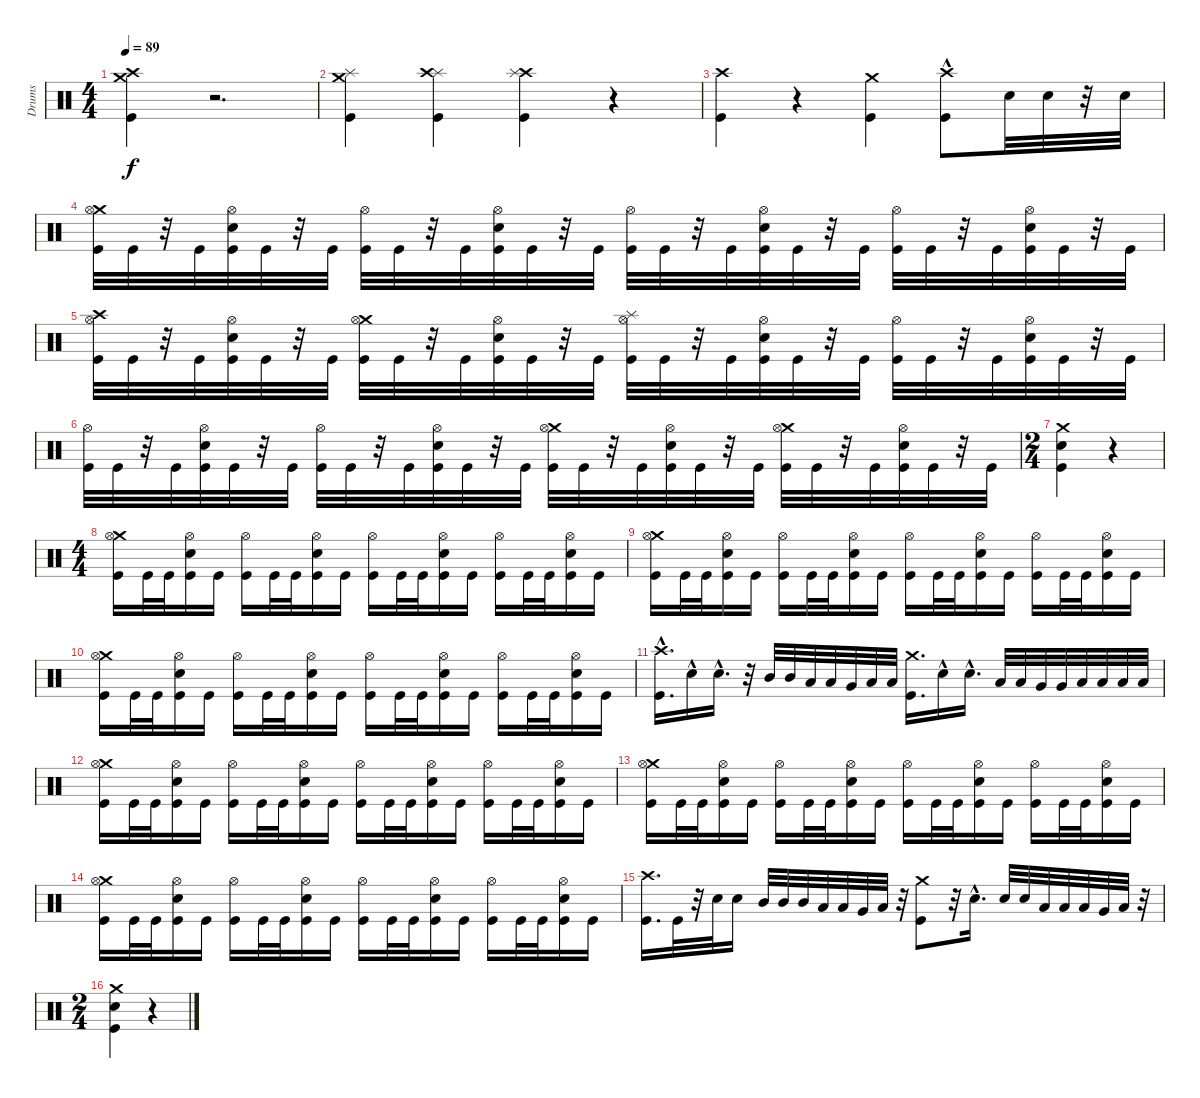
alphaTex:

\track ("Drums" "Drums") {instrument percussion}
\staff {score}
\articulation defaults
\ts (4 4)
\tempo 89
\clef neutral
\ks c
("Crash medium (hit)" "Crash high (hit)" "Kick (hit)").4{dy f} r.2{d} |
("Crash medium (hit)" "Splash (hit)" "Kick (hit)").4 ("Kick (hit)" "Splash (hit)" "Crash high (hit)").4 ("Kick (hit)" "Crash high (hit)" "Splash (hit)").4 r.4 |
("Kick (hit)" "Crash high (hit)").4 r.4 ("Crash medium (hit)" "Kick (hit)").4 ("Kick (hit)"{hac} "Crash high (hit)"{hac}).8 "Snare (hit) 2".32 "Snare (hit) 2".32 r.32 "Snare (hit) 2".32 |
("Crash medium (hit)" "Hi-Hat (open)" "Kick (hit)").32 "Kick (hit)".32 r.32 "Kick (hit)".32 ("Snare (hit) 2" "Hi-Hat (open)" "Kick (hit)").32 "Kick (hit)".32 r.32 "Kick (hit)".32 ("Hi-Hat (open)" "Kick (hit)").32 "Kick (hit)".32 r.32 "Kick (hit)".32 ("Snare (hit) 2" "Hi-Hat (open)" "Kick (hit)").32 "Kick (hit)".32 r.32 "Kick (hit)".32 ("Hi-Hat (open)" "Kick (hit)").32 "Kick (hit)".32 r.32 "Kick (hit)".32 ("Snare (hit) 2" "Hi-Hat (open)" "Kick (hit)").32 "Kick (hit)".32 r.32 "Kick (hit)".32 ("Hi-Hat (open)" "Kick (hit)").32 "Kick (hit)".32 r.32 "Kick (hit)".32 ("Snare (hit) 2" "Hi-Hat (open)" "Kick (hit)").32 "Kick (hit)".32 r.32 "Kick (hit)".32 |
("Crash high (hit)" "Hi-Hat (open)" "Kick (hit)").32 "Kick (hit)".32 r.32 "Kick (hit)".32 ("Snare (hit) 2" "Hi-Hat (open)" "Kick (hit)").32 "Kick (hit)".32 r.32 "Kick (hit)".32 ("Crash medium (hit)" "Hi-Hat (open)" "Kick (hit)").32 "Kick (hit)".32 r.32 "Kick (hit)".32 ("Snare (hit) 2" "Hi-Hat (open)" "Kick (hit)").32 "Kick (hit)".32 r.32 "Kick (hit)".32 ("Splash (hit)" "Hi-Hat (open)" "Kick (hit)").32 "Kick (hit)".32 r.32 "Kick (hit)".32 ("Snare (hit) 2" "Hi-Hat (open)" "Kick (hit)").32 "Kick (hit)".32 r.32 "Kick (hit)".32 ("Hi-Hat (open)" "Kick (hit)").32 "Kick (hit)".32 r.32 "Kick (hit)".32 ("Snare (hit) 2" "Hi-Hat (open)" "Kick (hit)").32 "Kick (hit)".32 r.32 "Kick (hit)".32 |
("Hi-Hat (open)" "Kick (hit)").32 "Kick (hit)".32 r.32 "Kick (hit)".32 ("Snare (hit) 2" "Hi-Hat (open)" "Kick (hit)").32 "Kick (hit)".32 r.32 "Kick (hit)".32 ("Hi-Hat (open)" "Kick (hit)").32 "Kick (hit)".32 r.32 "Kick (hit)".32 ("Snare (hit) 2" "Hi-Hat (open)" "Kick (hit)").32 "Kick (hit)".32 r.32 "Kick (hit)".32 ("Crash medium (hit)" "Hi-Hat (open)" "Kick (hit)").32 "Kick (hit)".32 r.32 "Kick (hit)".32 ("Snare (hit) 2" "Hi-Hat (open)" "Kick (hit)").32 "Kick (hit)".32 r.32 "Kick (hit)".32 ("Crash medium (hit)" "Hi-Hat (open)" "Kick (hit)").32 "Kick (hit)".32 r.32 "Kick (hit)".32 ("Snare (hit) 2" "Hi-Hat (open)" "Kick (hit)").32 "Kick (hit)".32 r.32 "Kick (hit)".32 |
\ts (2 4)
("Snare (hit) 2" "Kick (hit)" "Crash medium (hit)").4 r.4 |
\ts (4 4)
("Crash medium (hit)" "Hi-Hat (open)" "Kick (hit)").16{volume 15 balance 8} "Kick (hit)".32 "Kick (hit)".32 ("Hi-Hat (open)" "Snare (hit) 2" "Kick (hit)").16 "Kick (hit)".16 ("Hi-Hat (open)" "Kick (hit)").16 "Kick (hit)".32 "Kick (hit)".32 ("Hi-Hat (open)" "Snare (hit) 2" "Kick (hit)").16 "Kick (hit)".16 ("Hi-Hat (open)" "Kick (hit)").16 "Kick (hit)".32 "Kick (hit)".32 ("Snare (hit) 2" "Hi-Hat (open)" "Kick (hit)").16 "Kick (hit)".16 ("Hi-Hat (open)" "Kick (hit)").16 "Kick (hit)".32 "Kick (hit)".32 ("Snare (hit) 2" "Hi-Hat (open)" "Kick (hit)").16 "Kick (hit)".16 |
("Kick (hit)" "Crash medium (hit)" "Hi-Hat (open)").16 "Kick (hit)".32 "Kick (hit)".32 ("Hi-Hat (open)" "Snare (hit) 2" "Kick (hit)").16 "Kick (hit)".16 ("Hi-Hat (open)" "Kick (hit)").16 "Kick (hit)".32 "Kick (hit)".32 ("Hi-Hat (open)" "Snare (hit) 2" "Kick (hit)").16 "Kick (hit)".16 ("Hi-Hat (open)" "Kick (hit)").16 "Kick (hit)".32 "Kick (hit)".32 ("Snare (hit) 2" "Hi-Hat (open)" "Kick (hit)").16 "Kick (hit)".16 ("Hi-Hat (open)" "Kick (hit)").16 "Kick (hit)".32 "Kick (hit)".32 ("Snare (hit) 2" "Hi-Hat (open)" "Kick (hit)").16 "Kick (hit)".16 |
("Kick (hit)" "Crash medium (hit)" "Hi-Hat (open)").16 "Kick (hit)".32 "Kick (hit)".32 ("Hi-Hat (open)" "Snare (hit) 2" "Kick (hit)").16 "Kick (hit)".16 ("Hi-Hat (open)" "Kick (hit)").16 "Kick (hit)".32 "Kick (hit)".32 ("Hi-Hat (open)" "Snare (hit) 2" "Kick (hit)").16 "Kick (hit)".16 ("Hi-Hat (open)" "Kick (hit)").16 "Kick (hit)".32 "Kick (hit)".32 ("Snare (hit) 2" "Hi-Hat (open)" "Kick (hit)").16 "Kick (hit)".16 ("Hi-Hat (open)" "Kick (hit)").16 "Kick (hit)".32 "Kick (hit)".32 ("Snare (hit) 2" "Hi-Hat (open)" "Kick (hit)").16 "Kick (hit)".16 |
("Kick (hit)"{hac} "Crash high (hit)").16{d} "Electric Snare (hit)"{hac}.16 "Electric Snare (hit)"{hac}.16{d} r.32 "Mid Tom (hit)".32 "Mid Tom (hit)".32 "Low Tom (hit)".32 "Low Tom (hit)".32 "Very Low Tom (hit)".32 "Low Floor Tom (hit)".32 "Low Floor Tom (hit)".32 ("Kick (hit)" "Crash medium (hit)").16{d} "Snare (hit) 2"{hac}.16 "Snare (hit) 2"{hac}.16{d} "Low Tom (hit)".32 "Low Tom (hit)".32 "Very Low Tom (hit)".32 "Very Low Tom (hit)".32 "Low Floor Tom (hit)".32 "Low Floor Tom (hit)".32 "Low Floor Tom (hit)".32 "Low Floor Tom (hit)".32 |
("Crash medium (hit)" "Hi-Hat (open)" "Kick (hit)").16 "Kick (hit)".32 "Kick (hit)".32 ("Hi-Hat (open)" "Snare (hit) 2" "Kick (hit)").16 "Kick (hit)".16 ("Hi-Hat (open)" "Kick (hit)").16 "Kick (hit)".32 "Kick (hit)".32 ("Hi-Hat (open)" "Snare (hit) 2" "Kick (hit)").16 "Kick (hit)".16 ("Hi-Hat (open)" "Kick (hit)").16 "Kick (hit)".32 "Kick (hit)".32 ("Snare (hit) 2" "Hi-Hat (open)" "Kick (hit)").16 "Kick (hit)".16 ("Hi-Hat (open)" "Kick (hit)").16 "Kick (hit)".32 "Kick (hit)".32 ("Snare (hit) 2" "Hi-Hat (open)" "Kick (hit)").16 "Kick (hit)".16 |
("Kick (hit)" "Crash medium (hit)" "Hi-Hat (open)").16 "Kick (hit)".32 "Kick (hit)".32 ("Hi-Hat (open)" "Snare (hit) 2" "Kick (hit)").16 "Kick (hit)".16 ("Hi-Hat (open)" "Kick (hit)").16 "Kick (hit)".32 "Kick (hit)".32 ("Hi-Hat (open)" "Snare (hit) 2" "Kick (hit)").16 "Kick (hit)".16 ("Hi-Hat (open)" "Kick (hit)").16 "Kick (hit)".32 "Kick (hit)".32 ("Snare (hit) 2" "Hi-Hat (open)" "Kick (hit)").16 "Kick (hit)".16 ("Hi-Hat (open)" "Kick (hit)").16 "Kick (hit)".32 "Kick (hit)".32 ("Snare (hit) 2" "Hi-Hat (open)" "Kick (hit)").16 "Kick (hit)".16 |
("Kick (hit)" "Crash medium (hit)" "Hi-Hat (open)").16 "Kick (hit)".32 "Kick (hit)".32 ("Hi-Hat (open)" "Snare (hit) 2" "Kick (hit)").16 "Kick (hit)".16 ("Hi-Hat (open)" "Kick (hit)").16 "Kick (hit)".32 "Kick (hit)".32 ("Hi-Hat (open)" "Snare (hit) 2" "Kick (hit)").16 "Kick (hit)".16 ("Hi-Hat (open)" "Kick (hit)").16 "Kick (hit)".32 "Kick (hit)".32 ("Snare (hit) 2" "Hi-Hat (open)" "Kick (hit)").16 "Kick (hit)".16 ("Hi-Hat (open)" "Kick (hit)").16 "Kick (hit)".32 "Kick (hit)".32 ("Snare (hit) 2" "Hi-Hat (open)" "Kick (hit)").16 "Kick (hit)".16 |
("Kick (hit)" "Crash high (hit)").16{d} "Kick (hit)".32 r.32 "Snare (hit) 2".32 "Snare (hit) 2".16 "Mid Tom (hit)".32 "Mid Tom (hit)".32 "Mid Tom (hit)".32 "Low Tom (hit)".32 "Low Tom (hit)".32 "Very Low Tom (hit)".32 "Low Floor Tom (hit)".32 r.32 ("Kick (hit)" "Crash medium (hit)").8 r.32 "Snare (hit) 2"{hac}.16{d} "Snare (hit) 2".32 "Snare (hit) 2".32 "Low Tom (hit)".32 "Low Tom (hit)".32 "Low Tom (hit)".32 "Very Low Tom (hit)".32 "Low Floor Tom (hit)".32 r.32 |
\ts (2 4)
("Kick (hit)" "Snare (hit) 2" "Crash medium (hit)").4{volume 15 balance 8} r.4
